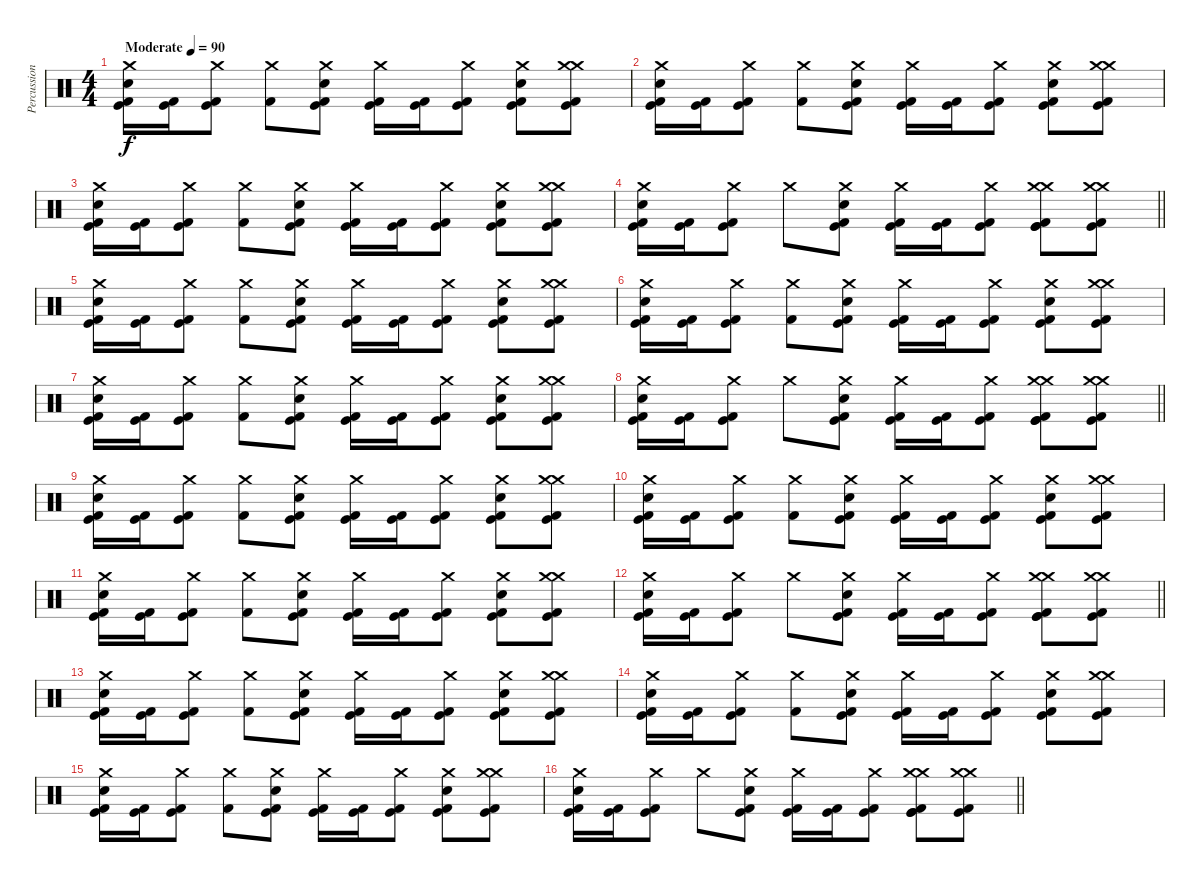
\track ("Percussion" "Percussion") {instrument percussion}
\staff {score}
\articulation defaults
\ts (4 4)
\tempo (90 "Moderate")
\clef neutral
\ks c
("Crash medium (hit)" "Snare (hit) 2" "Kick (hit)" "Kick (hit) 2").16{dy f} ("Kick (hit)" "Kick (hit) 2").16 ("Crash medium (hit)" "Kick (hit)" "Kick (hit) 2").8 ("Crash medium (hit)" "Kick (hit) 2").8 ("Crash medium (hit)" "Snare (hit) 2" "Kick (hit)" "Kick (hit) 2").8 ("Crash medium (hit)" "Kick (hit)" "Kick (hit) 2").16 ("Kick (hit)" "Kick (hit) 2").16 ("Crash medium (hit)" "Kick (hit)" "Kick (hit) 2").8 ("Crash medium (hit)" "Snare (hit) 2" "Kick (hit)" "Kick (hit) 2").8 ("Crash medium (hit)" "Crash medium (hit)" "Kick (hit)" "Kick (hit) 2").8 |
("Crash medium (hit)" "Snare (hit) 2" "Kick (hit)" "Kick (hit) 2").16 ("Kick (hit)" "Kick (hit) 2").16 ("Crash medium (hit)" "Kick (hit)" "Kick (hit) 2").8 ("Crash medium (hit)" "Kick (hit) 2").8 ("Crash medium (hit)" "Snare (hit) 2" "Kick (hit)" "Kick (hit) 2").8 ("Crash medium (hit)" "Kick (hit)" "Kick (hit) 2").16 ("Kick (hit)" "Kick (hit) 2").16 ("Crash medium (hit)" "Kick (hit)" "Kick (hit) 2").8 ("Crash medium (hit)" "Snare (hit) 2" "Kick (hit)" "Kick (hit) 2").8 ("Crash medium (hit)" "Crash medium (hit)" "Kick (hit)" "Kick (hit) 2").8 |
("Crash medium (hit)" "Snare (hit) 2" "Kick (hit)" "Kick (hit) 2").16 ("Kick (hit)" "Kick (hit) 2").16 ("Crash medium (hit)" "Kick (hit)" "Kick (hit) 2").8 ("Crash medium (hit)" "Kick (hit) 2").8 ("Crash medium (hit)" "Snare (hit) 2" "Kick (hit)" "Kick (hit) 2").8 ("Crash medium (hit)" "Kick (hit)" "Kick (hit) 2").16 ("Kick (hit)" "Kick (hit) 2").16 ("Crash medium (hit)" "Kick (hit)" "Kick (hit) 2").8 ("Crash medium (hit)" "Snare (hit) 2" "Kick (hit)" "Kick (hit) 2").8 ("Crash medium (hit)" "Crash medium (hit)" "Kick (hit)" "Kick (hit) 2").8 |
\barLineRight lightlight
("Crash medium (hit)" "Snare (hit) 2" "Kick (hit)" "Kick (hit) 2").16 ("Kick (hit)" "Kick (hit) 2").16 ("Crash medium (hit)" "Kick (hit)" "Kick (hit) 2").8 "Crash medium (hit)".8 ("Crash medium (hit)" "Snare (hit) 2" "Kick (hit)" "Kick (hit) 2").8 ("Crash medium (hit)" "Kick (hit)" "Kick (hit) 2").16 ("Kick (hit)" "Kick (hit) 2").16 ("Crash medium (hit)" "Kick (hit)" "Kick (hit) 2").8 ("Crash medium (hit)" "Crash medium (hit)" "Kick (hit)" "Kick (hit)" "Kick (hit) 2").8 ("Crash medium (hit)" "Crash medium (hit)" "Kick (hit)" "Kick (hit) 2").8 |
("Crash medium (hit)" "Snare (hit) 2" "Kick (hit)" "Kick (hit) 2").16 ("Kick (hit)" "Kick (hit) 2").16 ("Crash medium (hit)" "Kick (hit)" "Kick (hit) 2").8 ("Crash medium (hit)" "Kick (hit) 2").8 ("Crash medium (hit)" "Snare (hit) 2" "Kick (hit)" "Kick (hit) 2").8 ("Crash medium (hit)" "Kick (hit)" "Kick (hit) 2").16 ("Kick (hit)" "Kick (hit) 2").16 ("Crash medium (hit)" "Kick (hit)" "Kick (hit) 2").8 ("Crash medium (hit)" "Snare (hit) 2" "Kick (hit)" "Kick (hit) 2").8 ("Crash medium (hit)" "Crash medium (hit)" "Kick (hit)" "Kick (hit) 2").8 |
("Crash medium (hit)" "Snare (hit) 2" "Kick (hit)" "Kick (hit) 2").16 ("Kick (hit)" "Kick (hit) 2").16 ("Crash medium (hit)" "Kick (hit)" "Kick (hit) 2").8 ("Crash medium (hit)" "Kick (hit) 2").8 ("Crash medium (hit)" "Snare (hit) 2" "Kick (hit)" "Kick (hit) 2").8 ("Crash medium (hit)" "Kick (hit)" "Kick (hit) 2").16 ("Kick (hit)" "Kick (hit) 2").16 ("Crash medium (hit)" "Kick (hit)" "Kick (hit) 2").8 ("Crash medium (hit)" "Snare (hit) 2" "Kick (hit)" "Kick (hit) 2").8 ("Crash medium (hit)" "Crash medium (hit)" "Kick (hit)" "Kick (hit) 2").8 |
("Crash medium (hit)" "Snare (hit) 2" "Kick (hit)" "Kick (hit) 2").16 ("Kick (hit)" "Kick (hit) 2").16 ("Crash medium (hit)" "Kick (hit)" "Kick (hit) 2").8 ("Crash medium (hit)" "Kick (hit) 2").8 ("Crash medium (hit)" "Snare (hit) 2" "Kick (hit)" "Kick (hit) 2").8 ("Crash medium (hit)" "Kick (hit)" "Kick (hit) 2").16 ("Kick (hit)" "Kick (hit) 2").16 ("Crash medium (hit)" "Kick (hit)" "Kick (hit) 2").8 ("Crash medium (hit)" "Snare (hit) 2" "Kick (hit)" "Kick (hit) 2").8 ("Crash medium (hit)" "Crash medium (hit)" "Kick (hit)" "Kick (hit) 2").8 |
\barLineRight lightlight
("Crash medium (hit)" "Snare (hit) 2" "Kick (hit)" "Kick (hit) 2").16 ("Kick (hit)" "Kick (hit) 2").16 ("Crash medium (hit)" "Kick (hit)" "Kick (hit) 2").8 "Crash medium (hit)".8 ("Crash medium (hit)" "Snare (hit) 2" "Kick (hit)" "Kick (hit) 2").8 ("Crash medium (hit)" "Kick (hit)" "Kick (hit) 2").16 ("Kick (hit)" "Kick (hit) 2").16 ("Crash medium (hit)" "Kick (hit)" "Kick (hit) 2").8 ("Crash medium (hit)" "Crash medium (hit)" "Kick (hit)" "Kick (hit)" "Kick (hit) 2").8 ("Crash medium (hit)" "Crash medium (hit)" "Kick (hit)" "Kick (hit) 2").8 |
\section ("" "")
("Crash medium (hit)" "Snare (hit) 2" "Kick (hit)" "Kick (hit) 2").16 ("Kick (hit)" "Kick (hit) 2").16 ("Crash medium (hit)" "Kick (hit)" "Kick (hit) 2").8 ("Crash medium (hit)" "Kick (hit) 2").8 ("Crash medium (hit)" "Snare (hit) 2" "Kick (hit)" "Kick (hit) 2").8 ("Crash medium (hit)" "Kick (hit)" "Kick (hit) 2").16 ("Kick (hit)" "Kick (hit) 2").16 ("Crash medium (hit)" "Kick (hit)" "Kick (hit) 2").8 ("Crash medium (hit)" "Snare (hit) 2" "Kick (hit)" "Kick (hit) 2").8 ("Crash medium (hit)" "Crash medium (hit)" "Kick (hit)" "Kick (hit) 2").8 |
("Crash medium (hit)" "Snare (hit) 2" "Kick (hit)" "Kick (hit) 2").16 ("Kick (hit)" "Kick (hit) 2").16 ("Crash medium (hit)" "Kick (hit)" "Kick (hit) 2").8 ("Crash medium (hit)" "Kick (hit) 2").8 ("Crash medium (hit)" "Snare (hit) 2" "Kick (hit)" "Kick (hit) 2").8 ("Crash medium (hit)" "Kick (hit)" "Kick (hit) 2").16 ("Kick (hit)" "Kick (hit) 2").16 ("Crash medium (hit)" "Kick (hit)" "Kick (hit) 2").8 ("Crash medium (hit)" "Snare (hit) 2" "Kick (hit)" "Kick (hit) 2").8 ("Crash medium (hit)" "Crash medium (hit)" "Kick (hit)" "Kick (hit) 2").8 |
("Crash medium (hit)" "Snare (hit) 2" "Kick (hit)" "Kick (hit) 2").16 ("Kick (hit)" "Kick (hit) 2").16 ("Crash medium (hit)" "Kick (hit)" "Kick (hit) 2").8 ("Crash medium (hit)" "Kick (hit) 2").8 ("Crash medium (hit)" "Snare (hit) 2" "Kick (hit)" "Kick (hit) 2").8 ("Crash medium (hit)" "Kick (hit)" "Kick (hit) 2").16 ("Kick (hit)" "Kick (hit) 2").16 ("Crash medium (hit)" "Kick (hit)" "Kick (hit) 2").8 ("Crash medium (hit)" "Snare (hit) 2" "Kick (hit)" "Kick (hit) 2").8 ("Crash medium (hit)" "Crash medium (hit)" "Kick (hit)" "Kick (hit) 2").8 |
\barLineRight lightlight
("Crash medium (hit)" "Snare (hit) 2" "Kick (hit)" "Kick (hit) 2").16 ("Kick (hit)" "Kick (hit) 2").16 ("Crash medium (hit)" "Kick (hit)" "Kick (hit) 2").8 "Crash medium (hit)".8 ("Crash medium (hit)" "Snare (hit) 2" "Kick (hit)" "Kick (hit) 2").8 ("Crash medium (hit)" "Kick (hit)" "Kick (hit) 2").16 ("Kick (hit)" "Kick (hit) 2").16 ("Crash medium (hit)" "Kick (hit)" "Kick (hit) 2").8 ("Crash medium (hit)" "Crash medium (hit)" "Kick (hit)" "Kick (hit)" "Kick (hit) 2").8 ("Crash medium (hit)" "Crash medium (hit)" "Kick (hit)" "Kick (hit) 2").8 |
\section ("" "")
("Crash medium (hit)" "Snare (hit) 2" "Kick (hit)" "Kick (hit) 2").16 ("Kick (hit)" "Kick (hit) 2").16 ("Crash medium (hit)" "Kick (hit)" "Kick (hit) 2").8 ("Crash medium (hit)" "Kick (hit) 2").8 ("Crash medium (hit)" "Snare (hit) 2" "Kick (hit)" "Kick (hit) 2").8 ("Crash medium (hit)" "Kick (hit)" "Kick (hit) 2").16 ("Kick (hit)" "Kick (hit) 2").16 ("Crash medium (hit)" "Kick (hit)" "Kick (hit) 2").8 ("Crash medium (hit)" "Snare (hit) 2" "Kick (hit)" "Kick (hit) 2").8 ("Crash medium (hit)" "Crash medium (hit)" "Kick (hit)" "Kick (hit) 2").8 |
("Crash medium (hit)" "Snare (hit) 2" "Kick (hit)" "Kick (hit) 2").16 ("Kick (hit)" "Kick (hit) 2").16 ("Crash medium (hit)" "Kick (hit)" "Kick (hit) 2").8 ("Crash medium (hit)" "Kick (hit) 2").8 ("Crash medium (hit)" "Snare (hit) 2" "Kick (hit)" "Kick (hit) 2").8 ("Crash medium (hit)" "Kick (hit)" "Kick (hit) 2").16 ("Kick (hit)" "Kick (hit) 2").16 ("Crash medium (hit)" "Kick (hit)" "Kick (hit) 2").8 ("Crash medium (hit)" "Snare (hit) 2" "Kick (hit)" "Kick (hit) 2").8 ("Crash medium (hit)" "Crash medium (hit)" "Kick (hit)" "Kick (hit) 2").8 |
("Crash medium (hit)" "Snare (hit) 2" "Kick (hit)" "Kick (hit) 2").16 ("Kick (hit)" "Kick (hit) 2").16 ("Crash medium (hit)" "Kick (hit)" "Kick (hit) 2").8 ("Crash medium (hit)" "Kick (hit) 2").8 ("Crash medium (hit)" "Snare (hit) 2" "Kick (hit)" "Kick (hit) 2").8 ("Crash medium (hit)" "Kick (hit)" "Kick (hit) 2").16 ("Kick (hit)" "Kick (hit) 2").16 ("Crash medium (hit)" "Kick (hit)" "Kick (hit) 2").8 ("Crash medium (hit)" "Snare (hit) 2" "Kick (hit)" "Kick (hit) 2").8 ("Crash medium (hit)" "Crash medium (hit)" "Kick (hit)" "Kick (hit) 2").8 |
\barLineRight lightlight
("Crash medium (hit)" "Snare (hit) 2" "Kick (hit)" "Kick (hit) 2").16 ("Kick (hit)" "Kick (hit) 2").16 ("Crash medium (hit)" "Kick (hit)" "Kick (hit) 2").8 "Crash medium (hit)".8 ("Crash medium (hit)" "Snare (hit) 2" "Kick (hit)" "Kick (hit) 2").8 ("Crash medium (hit)" "Kick (hit)" "Kick (hit) 2").16 ("Kick (hit)" "Kick (hit) 2").16 ("Crash medium (hit)" "Kick (hit)" "Kick (hit) 2").8 ("Crash medium (hit)" "Crash medium (hit)" "Kick (hit)" "Kick (hit)" "Kick (hit) 2").8 ("Crash medium (hit)" "Crash medium (hit)" "Kick (hit)" "Kick (hit) 2").8
